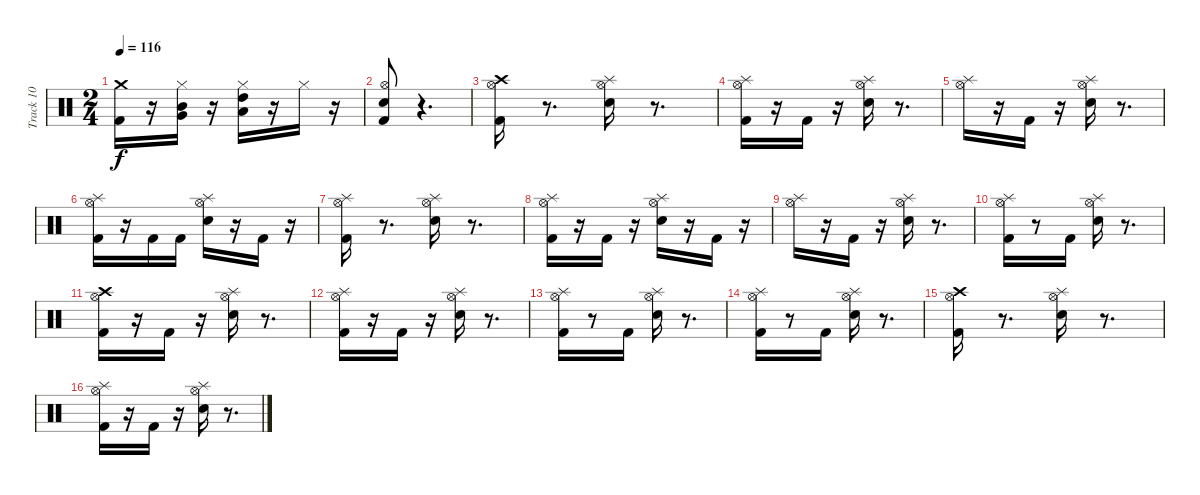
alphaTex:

\track ("Track 10" "Track 10") {instrument percussion}
\staff {score}
\articulation defaults
\ts (2 4)
\tempo 116
\clef neutral
\ks c
("Crash medium (hit)" "Kick (hit) 2").16{dy f} r.16 ("Hi-Hat (closed)" "Mid Tom (hit)" "Very Low Tom (hit)").16 r.16 ("Low Tom (hit)" "High Tom (hit)" "Hi-Hat (closed)").16 r.16 "Hi-Hat (closed)".16 r.16 |
("Hi-Hat (open)" "Electric Snare (hit)" "Kick (hit) 2").8 r.4{d} |
("Crash high (hit)" "Hi-Hat (open)" "Kick (hit) 2").16 r.8{d} ("Hi-Hat (open)" "Electric Snare (hit)" "Splash (hit)").16 r.8{d} |
("Splash (hit)" "Hi-Hat (open)" "Kick (hit) 2").16 r.16 "Kick (hit) 2".16 r.16 ("Splash (hit)" "Hi-Hat (open)" "Electric Snare (hit)").16 r.8{d} |
("Splash (hit)" "Hi-Hat (open)").16 r.16 "Kick (hit) 2".16 r.16 ("Splash (hit)" "Hi-Hat (open)" "Electric Snare (hit)").16 r.8{d} |
("Splash (hit)" "Hi-Hat (open)" "Kick (hit) 2").16 r.16 "Kick (hit) 2".16 "Kick (hit) 2".16 ("Splash (hit)" "Electric Snare (hit)" "Hi-Hat (open)").16 r.16 "Kick (hit) 2".16 r.16 |
("Splash (hit)" "Hi-Hat (open)" "Kick (hit) 2").16 r.8{d} ("Hi-Hat (open)" "Electric Snare (hit)" "Splash (hit)").16 r.8{d} |
("Splash (hit)" "Hi-Hat (open)" "Kick (hit) 2").16 r.16 "Kick (hit) 2".16 r.16 ("Splash (hit)" "Hi-Hat (open)" "Electric Snare (hit)").16 r.16 "Kick (hit) 2".16 r.16 |
("Splash (hit)" "Hi-Hat (open)").16 r.16 "Kick (hit) 2".16 r.16 ("Splash (hit)" "Hi-Hat (open)" "Electric Snare (hit)").16 r.8{d} |
("Splash (hit)" "Hi-Hat (open)" "Kick (hit) 2").16 r.8 "Kick (hit) 2".16 ("Splash (hit)" "Electric Snare (hit)" "Hi-Hat (open)").16 r.8{d} |
("Crash high (hit)" "Hi-Hat (open)" "Kick (hit) 2").16 r.16 "Kick (hit) 2".16 r.16 ("Hi-Hat (open)" "Electric Snare (hit)" "Splash (hit)").16 r.8{d} |
("Splash (hit)" "Hi-Hat (open)" "Kick (hit) 2").16 r.16 "Kick (hit) 2".16 r.16 ("Splash (hit)" "Hi-Hat (open)" "Electric Snare (hit)").16 r.8{d} |
("Splash (hit)" "Kick (hit) 2" "Hi-Hat (open)").16 r.8 "Kick (hit) 2".16 ("Splash (hit)" "Hi-Hat (open)" "Electric Snare (hit)").16 r.8{d} |
("Splash (hit)" "Hi-Hat (open)" "Kick (hit) 2").16 r.8 "Kick (hit) 2".16 ("Splash (hit)" "Electric Snare (hit)" "Hi-Hat (open)").16 r.8{d} |
("Crash high (hit)" "Hi-Hat (open)" "Kick (hit) 2").16 r.8{d} ("Hi-Hat (open)" "Electric Snare (hit)" "Splash (hit)").16 r.8{d} |
("Splash (hit)" "Hi-Hat (open)" "Kick (hit) 2").16 r.16 "Kick (hit) 2".16 r.16 ("Splash (hit)" "Hi-Hat (open)" "Electric Snare (hit)").16 r.8{d}
